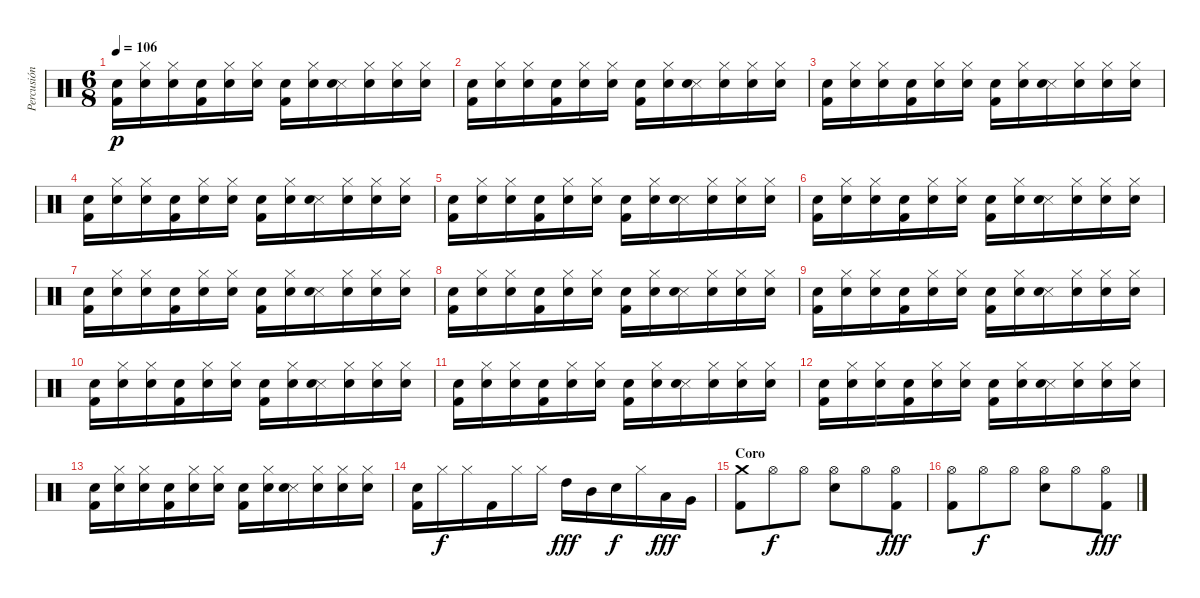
\track ("Percusión" "Percusión") {instrument percussion}
\staff {score}
\articulation defaults
\ts (6 8)
\tempo 106
\clef neutral
\ks c
("Kick (hit) 2" "Hand Clap (hit)").16{dy p} ("Hi-Hat (closed)" "Hand Clap (hit)").16 ("Hi-Hat (closed)" "Hand Clap (hit)").16 ("Kick (hit) 2" "Hand Clap (hit)").16 ("Hi-Hat (closed)" "Hand Clap (hit)").16 ("Hi-Hat (closed)" "Hand Clap (hit)").16 ("Kick (hit) 2" "Hand Clap (hit)").16 ("Hi-Hat (closed)" "Hand Clap (hit)").16 ("Snare (side stick) 3" "Hand Clap (hit)").16 ("Hi-Hat (closed)" "Hand Clap (hit)").16 ("Hi-Hat (closed)" "Hand Clap (hit)").16 ("Hi-Hat (closed)" "Hand Clap (hit)").16 |
("Kick (hit) 2" "Hand Clap (hit)").16 ("Hi-Hat (closed)" "Hand Clap (hit)").16 ("Hi-Hat (closed)" "Hand Clap (hit)").16 ("Kick (hit) 2" "Hand Clap (hit)").16 ("Hi-Hat (closed)" "Hand Clap (hit)").16 ("Hi-Hat (closed)" "Hand Clap (hit)").16 ("Kick (hit) 2" "Hand Clap (hit)").16 ("Hi-Hat (closed)" "Hand Clap (hit)").16 ("Snare (side stick) 3" "Hand Clap (hit)").16 ("Hi-Hat (closed)" "Hand Clap (hit)").16 ("Hi-Hat (closed)" "Hand Clap (hit)").16 ("Hi-Hat (closed)" "Hand Clap (hit)").16 |
("Kick (hit) 2" "Hand Clap (hit)").16 ("Hi-Hat (closed)" "Hand Clap (hit)").16 ("Hi-Hat (closed)" "Hand Clap (hit)").16 ("Kick (hit) 2" "Hand Clap (hit)").16 ("Hi-Hat (closed)" "Hand Clap (hit)").16 ("Hi-Hat (closed)" "Hand Clap (hit)").16 ("Kick (hit) 2" "Hand Clap (hit)").16 ("Hi-Hat (closed)" "Hand Clap (hit)").16 ("Snare (side stick) 3" "Hand Clap (hit)").16 ("Hi-Hat (closed)" "Hand Clap (hit)").16 ("Hi-Hat (closed)" "Hand Clap (hit)").16 ("Hi-Hat (closed)" "Hand Clap (hit)").16 |
("Kick (hit) 2" "Hand Clap (hit)").16 ("Hi-Hat (closed)" "Hand Clap (hit)").16 ("Hi-Hat (closed)" "Hand Clap (hit)").16 ("Kick (hit) 2" "Hand Clap (hit)").16 ("Hi-Hat (closed)" "Hand Clap (hit)").16 ("Hi-Hat (closed)" "Hand Clap (hit)").16 ("Kick (hit) 2" "Hand Clap (hit)").16 ("Hi-Hat (closed)" "Hand Clap (hit)").16 ("Snare (side stick) 3" "Hand Clap (hit)").16 ("Hi-Hat (closed)" "Hand Clap (hit)").16 ("Hi-Hat (closed)" "Hand Clap (hit)").16 ("Hi-Hat (closed)" "Hand Clap (hit)").16 |
("Kick (hit) 2" "Hand Clap (hit)").16 ("Hi-Hat (closed)" "Hand Clap (hit)").16 ("Hi-Hat (closed)" "Hand Clap (hit)").16 ("Kick (hit) 2" "Hand Clap (hit)").16 ("Hi-Hat (closed)" "Hand Clap (hit)").16 ("Hi-Hat (closed)" "Hand Clap (hit)").16 ("Kick (hit) 2" "Hand Clap (hit)").16 ("Hi-Hat (closed)" "Hand Clap (hit)").16 ("Snare (side stick) 3" "Hand Clap (hit)").16 ("Hi-Hat (closed)" "Hand Clap (hit)").16 ("Hi-Hat (closed)" "Hand Clap (hit)").16 ("Hi-Hat (closed)" "Hand Clap (hit)").16 |
("Kick (hit) 2" "Hand Clap (hit)").16 ("Hi-Hat (closed)" "Hand Clap (hit)").16 ("Hi-Hat (closed)" "Hand Clap (hit)").16 ("Kick (hit) 2" "Hand Clap (hit)").16 ("Hi-Hat (closed)" "Hand Clap (hit)").16 ("Hi-Hat (closed)" "Hand Clap (hit)").16 ("Kick (hit) 2" "Hand Clap (hit)").16 ("Hi-Hat (closed)" "Hand Clap (hit)").16 ("Snare (side stick) 3" "Hand Clap (hit)").16 ("Hi-Hat (closed)" "Hand Clap (hit)").16 ("Hi-Hat (closed)" "Hand Clap (hit)").16 ("Hi-Hat (closed)" "Hand Clap (hit)").16 |
("Kick (hit) 2" "Hand Clap (hit)").16 ("Hi-Hat (closed)" "Hand Clap (hit)").16 ("Hi-Hat (closed)" "Hand Clap (hit)").16 ("Kick (hit) 2" "Hand Clap (hit)").16 ("Hi-Hat (closed)" "Hand Clap (hit)").16 ("Hi-Hat (closed)" "Hand Clap (hit)").16 ("Kick (hit) 2" "Hand Clap (hit)").16 ("Hi-Hat (closed)" "Hand Clap (hit)").16 ("Snare (side stick) 3" "Hand Clap (hit)").16 ("Hi-Hat (closed)" "Hand Clap (hit)").16 ("Hi-Hat (closed)" "Hand Clap (hit)").16 ("Hi-Hat (closed)" "Hand Clap (hit)").16 |
("Kick (hit) 2" "Hand Clap (hit)").16 ("Hi-Hat (closed)" "Hand Clap (hit)").16 ("Hi-Hat (closed)" "Hand Clap (hit)").16 ("Kick (hit) 2" "Hand Clap (hit)").16 ("Hi-Hat (closed)" "Hand Clap (hit)").16 ("Hi-Hat (closed)" "Hand Clap (hit)").16 ("Kick (hit) 2" "Hand Clap (hit)").16 ("Hi-Hat (closed)" "Hand Clap (hit)").16 ("Snare (side stick) 3" "Hand Clap (hit)").16 ("Hi-Hat (closed)" "Hand Clap (hit)").16 ("Hi-Hat (closed)" "Hand Clap (hit)").16 ("Hi-Hat (closed)" "Hand Clap (hit)").16 |
("Kick (hit) 2" "Hand Clap (hit)").16 ("Hi-Hat (closed)" "Hand Clap (hit)").16 ("Hi-Hat (closed)" "Hand Clap (hit)").16 ("Kick (hit) 2" "Hand Clap (hit)").16 ("Hi-Hat (closed)" "Hand Clap (hit)").16 ("Hi-Hat (closed)" "Hand Clap (hit)").16 ("Kick (hit) 2" "Hand Clap (hit)").16 ("Hi-Hat (closed)" "Hand Clap (hit)").16 ("Snare (side stick) 3" "Hand Clap (hit)").16 ("Hi-Hat (closed)" "Hand Clap (hit)").16 ("Hi-Hat (closed)" "Hand Clap (hit)").16 ("Hi-Hat (closed)" "Hand Clap (hit)").16 |
("Kick (hit) 2" "Hand Clap (hit)").16 ("Hi-Hat (closed)" "Hand Clap (hit)").16 ("Hi-Hat (closed)" "Hand Clap (hit)").16 ("Kick (hit) 2" "Hand Clap (hit)").16 ("Hi-Hat (closed)" "Hand Clap (hit)").16 ("Hi-Hat (closed)" "Hand Clap (hit)").16 ("Kick (hit) 2" "Hand Clap (hit)").16 ("Hi-Hat (closed)" "Hand Clap (hit)").16 ("Snare (side stick) 3" "Hand Clap (hit)").16 ("Hi-Hat (closed)" "Hand Clap (hit)").16 ("Hi-Hat (closed)" "Hand Clap (hit)").16 ("Hi-Hat (closed)" "Hand Clap (hit)").16 |
("Kick (hit) 2" "Hand Clap (hit)").16 ("Hi-Hat (closed)" "Hand Clap (hit)").16 ("Hi-Hat (closed)" "Hand Clap (hit)").16 ("Kick (hit) 2" "Hand Clap (hit)").16 ("Hi-Hat (closed)" "Hand Clap (hit)").16 ("Hi-Hat (closed)" "Hand Clap (hit)").16 ("Kick (hit) 2" "Hand Clap (hit)").16 ("Hi-Hat (closed)" "Hand Clap (hit)").16 ("Snare (side stick) 3" "Hand Clap (hit)").16 ("Hi-Hat (closed)" "Hand Clap (hit)").16 ("Hi-Hat (closed)" "Hand Clap (hit)").16 ("Hi-Hat (closed)" "Hand Clap (hit)").16 |
("Kick (hit) 2" "Hand Clap (hit)").16 ("Hi-Hat (closed)" "Hand Clap (hit)").16 ("Hi-Hat (closed)" "Hand Clap (hit)").16 ("Kick (hit) 2" "Hand Clap (hit)").16 ("Hi-Hat (closed)" "Hand Clap (hit)").16 ("Hi-Hat (closed)" "Hand Clap (hit)").16 ("Kick (hit) 2" "Hand Clap (hit)").16 ("Hi-Hat (closed)" "Hand Clap (hit)").16 ("Snare (side stick) 3" "Hand Clap (hit)").16 ("Hi-Hat (closed)" "Hand Clap (hit)").16 ("Hi-Hat (closed)" "Hand Clap (hit)").16 ("Hi-Hat (closed)" "Hand Clap (hit)").16 |
("Kick (hit) 2" "Hand Clap (hit)").16 ("Hi-Hat (closed)" "Hand Clap (hit)").16 ("Hi-Hat (closed)" "Hand Clap (hit)").16 ("Kick (hit) 2" "Hand Clap (hit)").16 ("Hi-Hat (closed)" "Hand Clap (hit)").16 ("Hi-Hat (closed)" "Hand Clap (hit)").16 ("Kick (hit) 2" "Hand Clap (hit)").16 ("Hi-Hat (closed)" "Hand Clap (hit)").16 ("Snare (side stick) 3" "Hand Clap (hit)").16 ("Hi-Hat (closed)" "Hand Clap (hit)").16 ("Hi-Hat (closed)" "Hand Clap (hit)").16 ("Hi-Hat (closed)" "Hand Clap (hit)").16 |
("Kick (hit) 2" "Hand Clap (hit)").16 "Hi-Hat (closed)".16{dy f} "Hi-Hat (closed)".16 "Kick (hit) 2".16 "Hi-Hat (closed)".16 "Hi-Hat (closed)".16 "High Tom (hit)".16{dy fff} "Mid Tom (hit)".16 "Snare (hit) 2".16{dy f} "Hi-Hat (closed)".16 "Low Tom (hit)".16{dy fff} "Very Low Tom (hit)".16 |
\section ("" "Coro")
("Crash medium (hit)" "Kick (hit) 2").8 "Hi-Hat (open)".8{dy f} "Hi-Hat (open)".8 ("Hi-Hat (open)" "Snare (hit) 2").8 "Hi-Hat (open)".8 ("Hi-Hat (open)" "Kick (hit) 2").8{dy fff} |
("Hi-Hat (open)" "Kick (hit) 2").8 "Hi-Hat (open)".8{dy f} "Hi-Hat (open)".8 ("Hi-Hat (open)" "Snare (hit) 2").8 "Hi-Hat (open)".8 ("Hi-Hat (open)" "Kick (hit) 2").8{dy fff}
